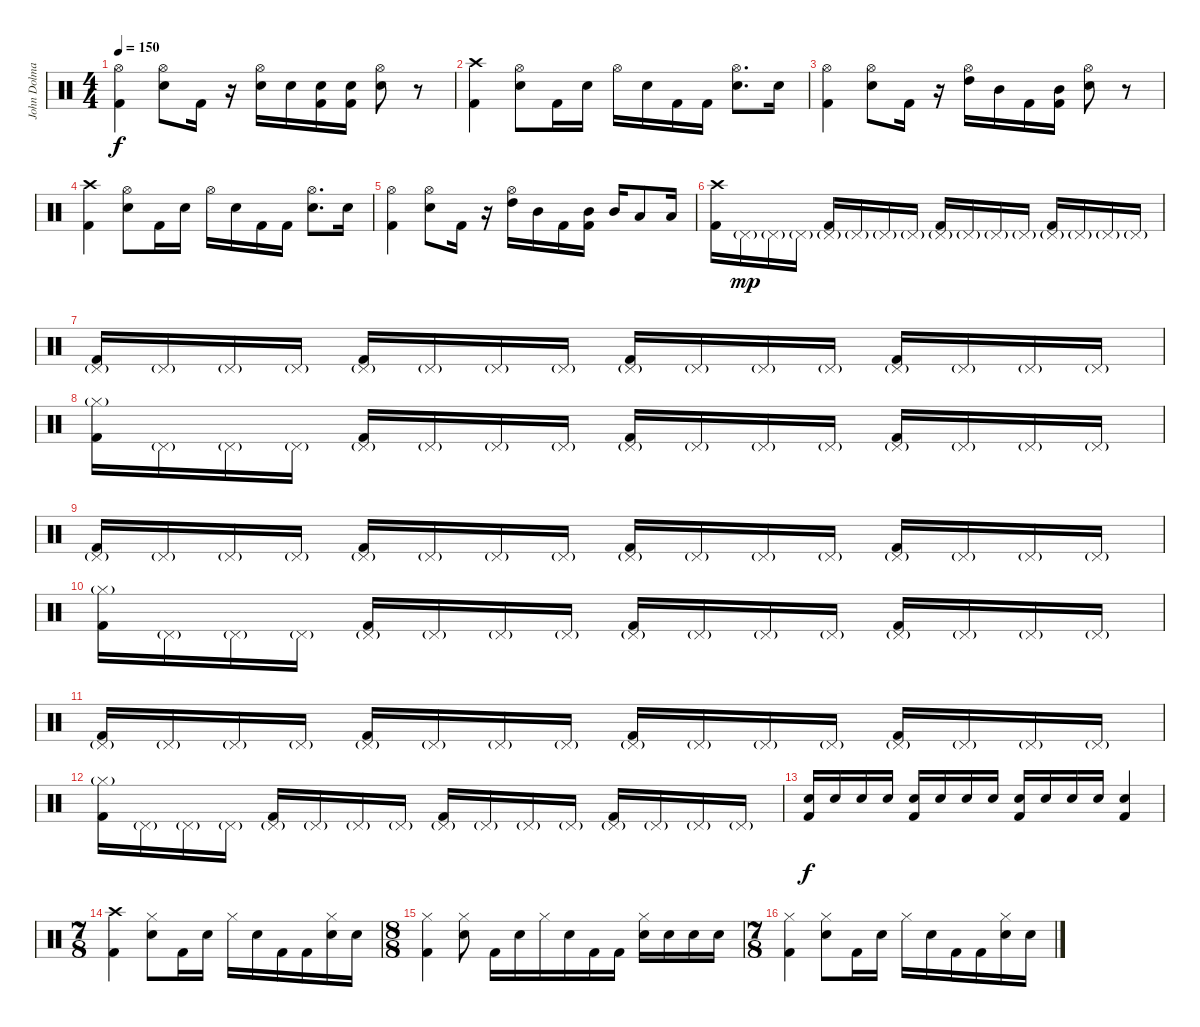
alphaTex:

\track ("John Dolmayan" "John Dolma") {instrument percussion}
\staff {score}
\articulation defaults
\ts (4 4)
\tempo 150
\clef neutral
\ks c
("Hi-Hat (open)" "Kick (hit) 2").4{dy f} ("Hi-Hat (open)" "Electric Snare (hit)").8 "Kick (hit) 2".16 r.16 ("Hi-Hat (open)" "Electric Snare (hit)").16 "Electric Snare (hit)".16 ("Electric Snare (hit)" "Kick (hit) 2").16 ("Electric Snare (hit)" "Kick (hit) 2").16 ("Hi-Hat (open)" "Electric Snare (hit)").8 r.8 |
("Crash high (hit)" "Kick (hit) 2").4 ("Hi-Hat (open)" "Electric Snare (hit)").8 "Kick (hit) 2".16 "Electric Snare (hit)".16 "Hi-Hat (open)".16 "Electric Snare (hit)".16 "Kick (hit) 2".16 "Kick (hit) 2".16 ("Hi-Hat (open)" "Electric Snare (hit)").8{d} "Electric Snare (hit)".16 |
("Hi-Hat (open)" "Kick (hit) 2").4 ("Hi-Hat (open)" "Electric Snare (hit)").8 "Kick (hit) 2".16 r.16 ("Hi-Hat (open)" "High Tom (hit)").16 "Mid Tom (hit)".16 "Kick (hit) 2".16 ("Mid Tom (hit)" "Kick (hit) 2").16 ("Hi-Hat (open)" "Electric Snare (hit)").8 r.8 |
("Crash high (hit)" "Kick (hit) 2").4 ("Hi-Hat (open)" "Electric Snare (hit)").8 "Kick (hit) 2".16 "Electric Snare (hit)".16 "Hi-Hat (open)".16 "Electric Snare (hit)".16 "Kick (hit) 2".16 "Kick (hit) 2".16 ("Hi-Hat (open)" "Electric Snare (hit)").8{d} "Electric Snare (hit)".16 |
("Hi-Hat (open)" "Kick (hit) 2").4 ("Hi-Hat (open)" "Electric Snare (hit)").8 "Kick (hit) 2".16 r.16 ("Hi-Hat (open)" "High Tom (hit)").16 "Mid Tom (hit)".16 "Kick (hit) 2".16 ("Mid Tom (hit)" "Kick (hit) 2").16 "Mid Tom (hit)".16 "Low Tom (hit)".8 "Low Tom (hit)".16 |
("Crash high (hit)" "Kick (hit) 2").16 "Pedal Hi-Hat (hit)"{g}.16{dy mp} "Pedal Hi-Hat (hit)"{g}.16 "Pedal Hi-Hat (hit)"{g}.16 ("Pedal Hi-Hat (hit)"{g} "Kick (hit) 2").16 "Pedal Hi-Hat (hit)"{g}.16 "Pedal Hi-Hat (hit)"{g}.16 "Pedal Hi-Hat (hit)"{g}.16 ("Pedal Hi-Hat (hit)"{g} "Kick (hit) 2").16 "Pedal Hi-Hat (hit)"{g}.16 "Pedal Hi-Hat (hit)"{g}.16 "Pedal Hi-Hat (hit)"{g}.16 ("Pedal Hi-Hat (hit)"{g} "Kick (hit) 2").16 "Pedal Hi-Hat (hit)"{g}.16 "Pedal Hi-Hat (hit)"{g}.16 "Pedal Hi-Hat (hit)"{g}.16 |
("Pedal Hi-Hat (hit)"{g} "Kick (hit) 2").16 "Pedal Hi-Hat (hit)"{g}.16 "Pedal Hi-Hat (hit)"{g}.16 "Pedal Hi-Hat (hit)"{g}.16 ("Pedal Hi-Hat (hit)"{g} "Kick (hit) 2").16 "Pedal Hi-Hat (hit)"{g}.16 "Pedal Hi-Hat (hit)"{g}.16 "Pedal Hi-Hat (hit)"{g}.16 ("Pedal Hi-Hat (hit)"{g} "Kick (hit) 2").16 "Pedal Hi-Hat (hit)"{g}.16 "Pedal Hi-Hat (hit)"{g}.16 "Pedal Hi-Hat (hit)"{g}.16 ("Pedal Hi-Hat (hit)"{g} "Kick (hit) 2").16 "Pedal Hi-Hat (hit)"{g}.16 "Pedal Hi-Hat (hit)"{g}.16 "Pedal Hi-Hat (hit)"{g}.16 |
("Hi-Hat (closed)"{g} "Kick (hit) 2").16 "Pedal Hi-Hat (hit)"{g}.16 "Pedal Hi-Hat (hit)"{g}.16 "Pedal Hi-Hat (hit)"{g}.16 ("Pedal Hi-Hat (hit)"{g} "Kick (hit) 2").16 "Pedal Hi-Hat (hit)"{g}.16 "Pedal Hi-Hat (hit)"{g}.16 "Pedal Hi-Hat (hit)"{g}.16 ("Pedal Hi-Hat (hit)"{g} "Kick (hit) 2").16 "Pedal Hi-Hat (hit)"{g}.16 "Pedal Hi-Hat (hit)"{g}.16 "Pedal Hi-Hat (hit)"{g}.16 ("Pedal Hi-Hat (hit)"{g} "Kick (hit) 2").16 "Pedal Hi-Hat (hit)"{g}.16 "Pedal Hi-Hat (hit)"{g}.16 "Pedal Hi-Hat (hit)"{g}.16 |
("Pedal Hi-Hat (hit)"{g} "Kick (hit) 2").16 "Pedal Hi-Hat (hit)"{g}.16 "Pedal Hi-Hat (hit)"{g}.16 "Pedal Hi-Hat (hit)"{g}.16 ("Pedal Hi-Hat (hit)"{g} "Kick (hit) 2").16 "Pedal Hi-Hat (hit)"{g}.16 "Pedal Hi-Hat (hit)"{g}.16 "Pedal Hi-Hat (hit)"{g}.16 ("Pedal Hi-Hat (hit)"{g} "Kick (hit) 2").16 "Pedal Hi-Hat (hit)"{g}.16 "Pedal Hi-Hat (hit)"{g}.16 "Pedal Hi-Hat (hit)"{g}.16 ("Pedal Hi-Hat (hit)"{g} "Kick (hit) 2").16 "Pedal Hi-Hat (hit)"{g}.16 "Pedal Hi-Hat (hit)"{g}.16 "Pedal Hi-Hat (hit)"{g}.16 |
("Hi-Hat (closed)"{g} "Kick (hit) 2").16 "Pedal Hi-Hat (hit)"{g}.16 "Pedal Hi-Hat (hit)"{g}.16 "Pedal Hi-Hat (hit)"{g}.16 ("Pedal Hi-Hat (hit)"{g} "Kick (hit) 2").16 "Pedal Hi-Hat (hit)"{g}.16 "Pedal Hi-Hat (hit)"{g}.16 "Pedal Hi-Hat (hit)"{g}.16 ("Pedal Hi-Hat (hit)"{g} "Kick (hit) 2").16 "Pedal Hi-Hat (hit)"{g}.16 "Pedal Hi-Hat (hit)"{g}.16 "Pedal Hi-Hat (hit)"{g}.16 ("Pedal Hi-Hat (hit)"{g} "Kick (hit) 2").16 "Pedal Hi-Hat (hit)"{g}.16 "Pedal Hi-Hat (hit)"{g}.16 "Pedal Hi-Hat (hit)"{g}.16 |
("Pedal Hi-Hat (hit)"{g} "Kick (hit) 2").16 "Pedal Hi-Hat (hit)"{g}.16 "Pedal Hi-Hat (hit)"{g}.16 "Pedal Hi-Hat (hit)"{g}.16 ("Pedal Hi-Hat (hit)"{g} "Kick (hit) 2").16 "Pedal Hi-Hat (hit)"{g}.16 "Pedal Hi-Hat (hit)"{g}.16 "Pedal Hi-Hat (hit)"{g}.16 ("Pedal Hi-Hat (hit)"{g} "Kick (hit) 2").16 "Pedal Hi-Hat (hit)"{g}.16 "Pedal Hi-Hat (hit)"{g}.16 "Pedal Hi-Hat (hit)"{g}.16 ("Pedal Hi-Hat (hit)"{g} "Kick (hit) 2").16 "Pedal Hi-Hat (hit)"{g}.16 "Pedal Hi-Hat (hit)"{g}.16 "Pedal Hi-Hat (hit)"{g}.16 |
("Hi-Hat (closed)"{g} "Kick (hit) 2").16 "Pedal Hi-Hat (hit)"{g}.16 "Pedal Hi-Hat (hit)"{g}.16 "Pedal Hi-Hat (hit)"{g}.16 ("Pedal Hi-Hat (hit)"{g} "Kick (hit) 2").16 "Pedal Hi-Hat (hit)"{g}.16 "Pedal Hi-Hat (hit)"{g}.16 "Pedal Hi-Hat (hit)"{g}.16 ("Pedal Hi-Hat (hit)"{g} "Kick (hit) 2").16 "Pedal Hi-Hat (hit)"{g}.16 "Pedal Hi-Hat (hit)"{g}.16 "Pedal Hi-Hat (hit)"{g}.16 ("Pedal Hi-Hat (hit)"{g} "Kick (hit) 2").16 "Pedal Hi-Hat (hit)"{g}.16 "Pedal Hi-Hat (hit)"{g}.16 "Pedal Hi-Hat (hit)"{g}.16 |
("Electric Snare (hit)" "Kick (hit) 2").16{dy f} "Electric Snare (hit)".16 "Electric Snare (hit)".16 "Electric Snare (hit)".16 ("Electric Snare (hit)" "Kick (hit) 2").16 "Electric Snare (hit)".16 "Electric Snare (hit)".16 "Electric Snare (hit)".16 ("Electric Snare (hit)" "Kick (hit) 2").16 "Electric Snare (hit)".16 "Electric Snare (hit)".16 "Electric Snare (hit)".16 ("Electric Snare (hit)" "Kick (hit) 2").4 |
\ts (7 8)
("Crash high (hit)" "Kick (hit) 2").4 ("Hi-Hat (closed)" "Electric Snare (hit)").8 "Kick (hit) 2".16 "Electric Snare (hit)".16 "Hi-Hat (closed)".16 "Electric Snare (hit)".16 "Kick (hit) 2".16 "Kick (hit) 2".16 ("Hi-Hat (closed)" "Electric Snare (hit)").16 "Electric Snare (hit)".16 |
\ts (8 8)
("Hi-Hat (closed)" "Kick (hit) 2").4 ("Hi-Hat (closed)" "Electric Snare (hit)").8 "Kick (hit) 2".16 "Electric Snare (hit)".16 "Hi-Hat (closed)".16 "Electric Snare (hit)".16 "Kick (hit) 2".16 "Kick (hit) 2".16 ("Hi-Hat (closed)" "Electric Snare (hit)").16 "Electric Snare (hit)".16 "Electric Snare (hit)".16 "Electric Snare (hit)".16 |
\ts (7 8)
("Hi-Hat (closed)" "Kick (hit) 2").4 ("Hi-Hat (closed)" "Electric Snare (hit)").8 "Kick (hit) 2".16 "Electric Snare (hit)".16 "Hi-Hat (closed)".16 "Electric Snare (hit)".16 "Kick (hit) 2".16 "Kick (hit) 2".16 ("Hi-Hat (closed)" "Electric Snare (hit)").16 "Electric Snare (hit)".16
